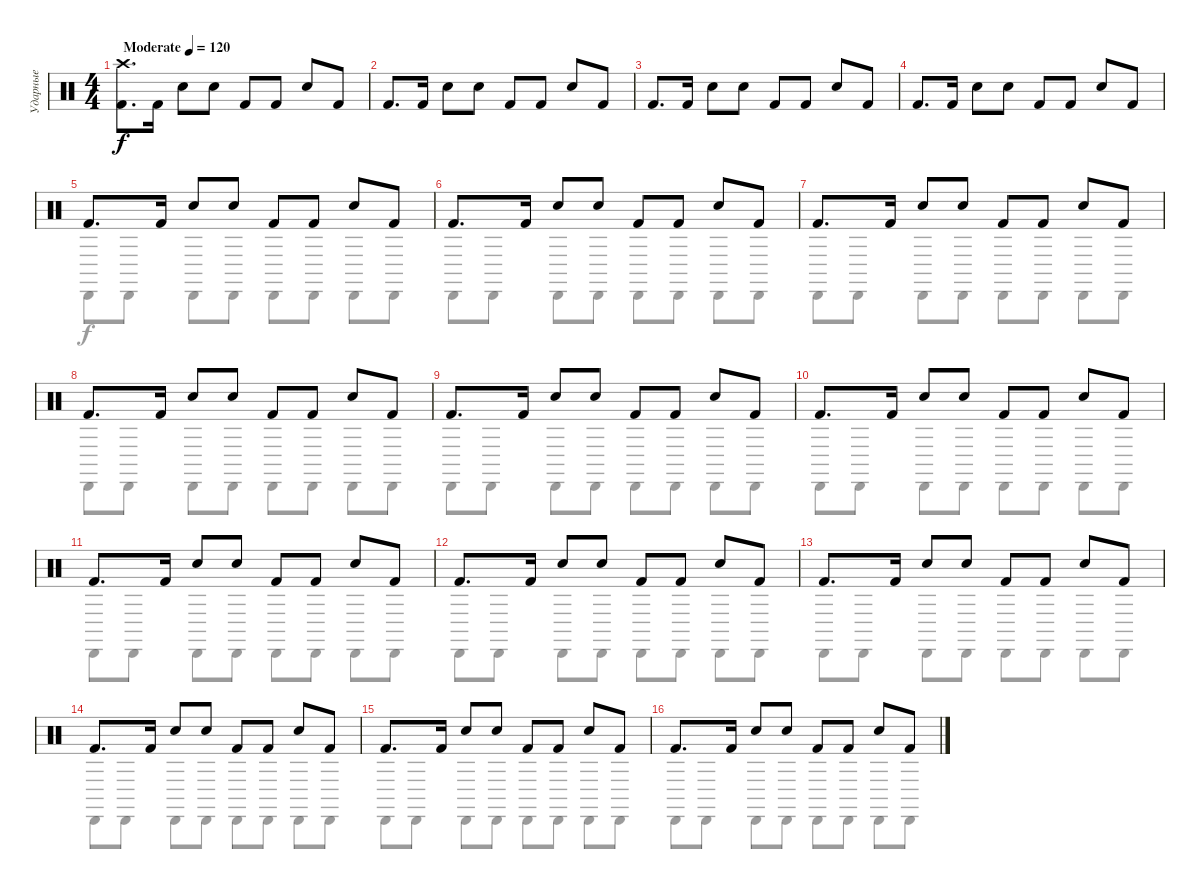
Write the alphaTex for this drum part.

\track ("Ударные" "Ударные") {instrument percussion}
\staff {score}
\articulation defaults
\voice
\ts (4 4)
\tempo (120 "Moderate")
\clef neutral
\ks c
("Kick (hit) 2" "Crash high (hit)").8{d dy f} "Kick (hit) 2".16 "Hand Clap (hit)".8 "Hand Clap (hit)".8 "Kick (hit) 2".8 "Kick (hit) 2".8 "Hand Clap (hit)".8 "Kick (hit) 2".8 |
"Kick (hit) 2".8{d} "Kick (hit) 2".16 "Hand Clap (hit)".8 "Hand Clap (hit)".8 "Kick (hit) 2".8 "Kick (hit) 2".8 "Hand Clap (hit)".8 "Kick (hit) 2".8 |
"Kick (hit) 2".8{d} "Kick (hit) 2".16 "Hand Clap (hit)".8 "Hand Clap (hit)".8 "Kick (hit) 2".8 "Kick (hit) 2".8 "Hand Clap (hit)".8 "Kick (hit) 2".8 |
"Kick (hit) 2".8{d} "Kick (hit) 2".16 "Hand Clap (hit)".8 "Hand Clap (hit)".8 "Kick (hit) 2".8 "Kick (hit) 2".8 "Hand Clap (hit)".8 "Kick (hit) 2".8 |
"Kick (hit) 2".8{d} "Kick (hit) 2".16 "Hand Clap (hit)".8 "Hand Clap (hit)".8 "Kick (hit) 2".8 "Kick (hit) 2".8 "Hand Clap (hit)".8 "Kick (hit) 2".8 |
"Kick (hit) 2".8{d} "Kick (hit) 2".16 "Hand Clap (hit)".8 "Hand Clap (hit)".8 "Kick (hit) 2".8 "Kick (hit) 2".8 "Hand Clap (hit)".8 "Kick (hit) 2".8 |
"Kick (hit) 2".8{d} "Kick (hit) 2".16 "Hand Clap (hit)".8 "Hand Clap (hit)".8 "Kick (hit) 2".8 "Kick (hit) 2".8 "Hand Clap (hit)".8 "Kick (hit) 2".8 |
"Kick (hit) 2".8{d} "Kick (hit) 2".16 "Hand Clap (hit)".8 "Hand Clap (hit)".8 "Kick (hit) 2".8 "Kick (hit) 2".8 "Hand Clap (hit)".8 "Kick (hit) 2".8 |
"Kick (hit) 2".8{d} "Kick (hit) 2".16 "Hand Clap (hit)".8 "Hand Clap (hit)".8 "Kick (hit) 2".8 "Kick (hit) 2".8 "Hand Clap (hit)".8 "Kick (hit) 2".8 |
"Kick (hit) 2".8{d} "Kick (hit) 2".16 "Hand Clap (hit)".8 "Hand Clap (hit)".8 "Kick (hit) 2".8 "Kick (hit) 2".8 "Hand Clap (hit)".8 "Kick (hit) 2".8 |
"Kick (hit) 2".8{d} "Kick (hit) 2".16 "Hand Clap (hit)".8 "Hand Clap (hit)".8 "Kick (hit) 2".8 "Kick (hit) 2".8 "Hand Clap (hit)".8 "Kick (hit) 2".8 |
"Kick (hit) 2".8{d} "Kick (hit) 2".16 "Hand Clap (hit)".8 "Hand Clap (hit)".8 "Kick (hit) 2".8 "Kick (hit) 2".8 "Hand Clap (hit)".8 "Kick (hit) 2".8 |
"Kick (hit) 2".8{d} "Kick (hit) 2".16 "Hand Clap (hit)".8 "Hand Clap (hit)".8 "Kick (hit) 2".8 "Kick (hit) 2".8 "Hand Clap (hit)".8 "Kick (hit) 2".8 |
"Kick (hit) 2".8{d} "Kick (hit) 2".16 "Hand Clap (hit)".8 "Hand Clap (hit)".8 "Kick (hit) 2".8 "Kick (hit) 2".8 "Hand Clap (hit)".8 "Kick (hit) 2".8 |
"Kick (hit) 2".8{d} "Kick (hit) 2".16 "Hand Clap (hit)".8 "Hand Clap (hit)".8 "Kick (hit) 2".8 "Kick (hit) 2".8 "Hand Clap (hit)".8 "Kick (hit) 2".8 |
"Kick (hit) 2".8{d} "Kick (hit) 2".16 "Hand Clap (hit)".8 "Hand Clap (hit)".8 "Kick (hit) 2".8 "Kick (hit) 2".8 "Hand Clap (hit)".8 "Kick (hit) 2".8
\voice
\clef neutral
\ottava regular
\simile none
\ks c
|
|
|
|
"Cabasa (hit)".8 "Cabasa (hit)".8 "Cabasa (hit)".8 "Cabasa (hit)".8 "Cabasa (hit)".8 "Cabasa (hit)".8 "Cabasa (hit)".8 "Cabasa (hit)".8 |
"Cabasa (hit)".8 "Cabasa (hit)".8 "Cabasa (hit)".8 "Cabasa (hit)".8 "Cabasa (hit)".8 "Cabasa (hit)".8 "Cabasa (hit)".8 "Cabasa (hit)".8 |
"Cabasa (hit)".8 "Cabasa (hit)".8 "Cabasa (hit)".8 "Cabasa (hit)".8 "Cabasa (hit)".8 "Cabasa (hit)".8 "Cabasa (hit)".8 "Cabasa (hit)".8 |
"Cabasa (hit)".8 "Cabasa (hit)".8 "Cabasa (hit)".8 "Cabasa (hit)".8 "Cabasa (hit)".8 "Cabasa (hit)".8 "Cabasa (hit)".8 "Cabasa (hit)".8 |
"Cabasa (hit)".8 "Cabasa (hit)".8 "Cabasa (hit)".8 "Cabasa (hit)".8 "Cabasa (hit)".8 "Cabasa (hit)".8 "Cabasa (hit)".8 "Cabasa (hit)".8 |
"Cabasa (hit)".8 "Cabasa (hit)".8 "Cabasa (hit)".8 "Cabasa (hit)".8 "Cabasa (hit)".8 "Cabasa (hit)".8 "Cabasa (hit)".8 "Cabasa (hit)".8 |
"Cabasa (hit)".8 "Cabasa (hit)".8 "Cabasa (hit)".8 "Cabasa (hit)".8 "Cabasa (hit)".8 "Cabasa (hit)".8 "Cabasa (hit)".8 "Cabasa (hit)".8 |
"Cabasa (hit)".8 "Cabasa (hit)".8 "Cabasa (hit)".8 "Cabasa (hit)".8 "Cabasa (hit)".8 "Cabasa (hit)".8 "Cabasa (hit)".8 "Cabasa (hit)".8 |
"Cabasa (hit)".8 "Cabasa (hit)".8 "Cabasa (hit)".8 "Cabasa (hit)".8 "Cabasa (hit)".8 "Cabasa (hit)".8 "Cabasa (hit)".8 "Cabasa (hit)".8 |
"Cabasa (hit)".8 "Cabasa (hit)".8 "Cabasa (hit)".8 "Cabasa (hit)".8 "Cabasa (hit)".8 "Cabasa (hit)".8 "Cabasa (hit)".8 "Cabasa (hit)".8 |
"Cabasa (hit)".8 "Cabasa (hit)".8 "Cabasa (hit)".8 "Cabasa (hit)".8 "Cabasa (hit)".8 "Cabasa (hit)".8 "Cabasa (hit)".8 "Cabasa (hit)".8 |
"Cabasa (hit)".8 "Cabasa (hit)".8 "Cabasa (hit)".8 "Cabasa (hit)".8 "Cabasa (hit)".8 "Cabasa (hit)".8 "Cabasa (hit)".8 "Cabasa (hit)".8
